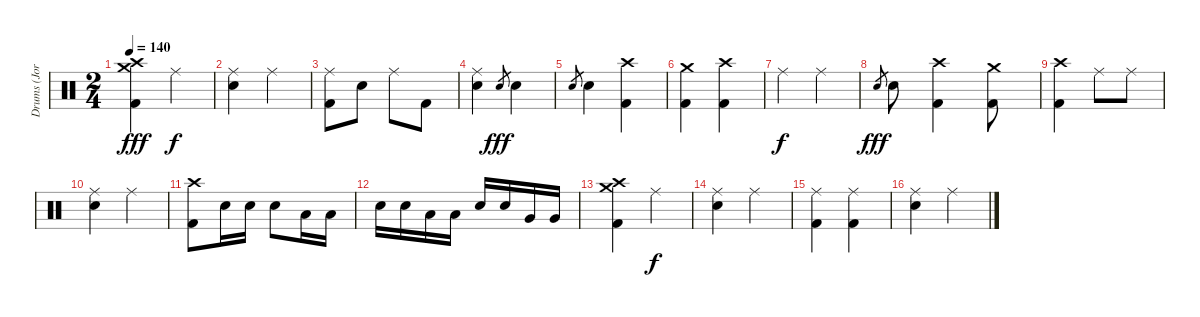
\track ("Drums (Jordan Hastings)" "Drums (Jor") {instrument percussion}
\staff {score}
\articulation defaults
\ts (2 4)
\tempo 140
\clef neutral
\ks c
("Crash medium (hit)" "Crash high (hit)" "Kick (hit) 2").4{dy fff} "Ride (middle)".4{dy f} |
("Ride (middle)" "Electric Snare (hit)").4 "Ride (middle)".4 |
("Ride (middle)" "Kick (hit) 2").8 "Electric Snare (hit)".8 "Ride (middle)".8 "Kick (hit) 2".8 |
("Ride (middle)" "Electric Snare (hit)").4 "Electric Snare (hit)".8{gr dy fff} "Electric Snare (hit)".4 |
"Electric Snare (hit)".8{gr} "Electric Snare (hit)".4 ("Crash high (hit)" "Kick (hit) 2").4 |
("Crash medium (hit)" "Kick (hit) 2").4 ("Crash high (hit)" "Kick (hit) 2").4 |
"Ride (middle)".4{dy f} "Ride (middle)".4 |
"Electric Snare (hit)".8{gr dy fff} "Electric Snare (hit)".8 ("Crash high (hit)" "Kick (hit) 2").4 ("Crash medium (hit)" "Kick (hit) 2").8 |
("Crash high (hit)" "Kick (hit) 2").4 "Ride (middle)".8 "Ride (middle)".8 |
("Ride (middle)" "Electric Snare (hit)").4 "Ride (middle)".4 |
("Crash high (hit)" "Kick (hit) 2").8 "Electric Snare (hit)".16 "Electric Snare (hit)".16 "Electric Snare (hit)".8 "Low Tom (hit)".16 "Low Tom (hit)".16 |
"Electric Snare (hit)".16 "Electric Snare (hit)".16 "Low Tom (hit)".16 "Low Tom (hit)".16 "Electric Snare (hit)".16 "Electric Snare (hit)".16 "Very Low Tom (hit)".16 "Very Low Tom (hit)".16 |
("Crash medium (hit)" "Crash high (hit)" "Kick (hit) 2").4 "Ride (middle)".4{dy f} |
("Ride (middle)" "Electric Snare (hit)").4 "Ride (middle)".4 |
("Ride (middle)" "Kick (hit) 2").4 ("Ride (middle)" "Kick (hit) 2").4 |
("Ride (middle)" "Electric Snare (hit)").4 "Ride (middle)".4
